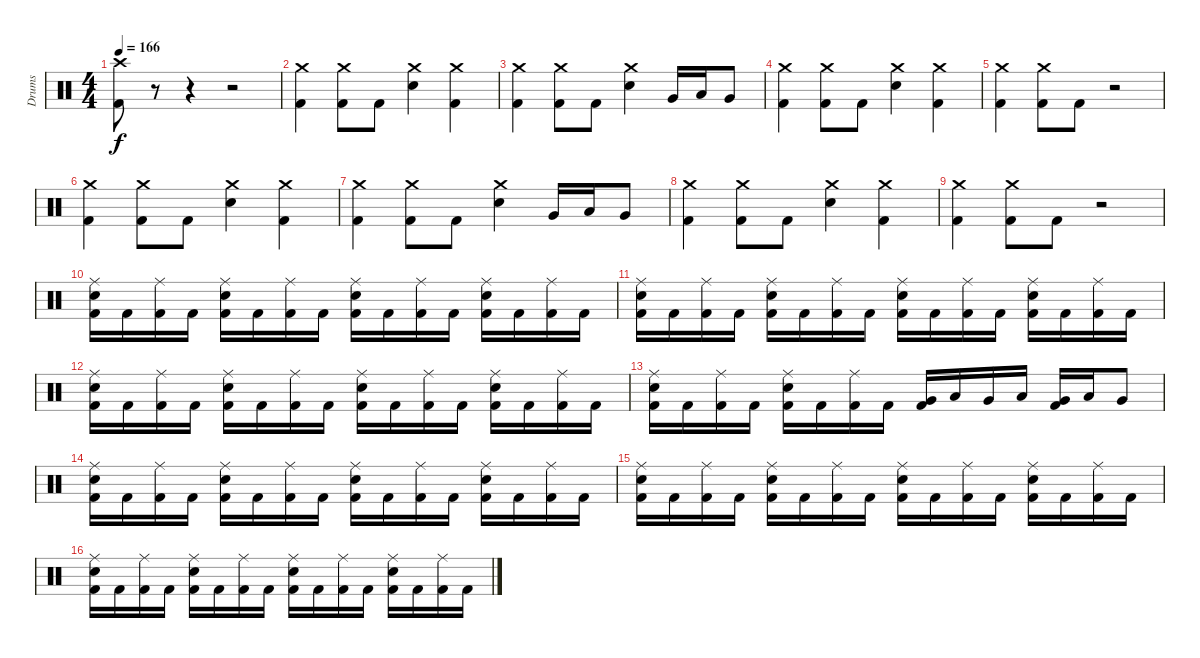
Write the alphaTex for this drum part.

\track ("Drums" "Drums") {instrument percussion}
\staff {score}
\articulation defaults
\ts (4 4)
\tempo 166
\clef neutral
\ks c
("Crash high (hit)" "Kick (hit) 2").8{dy f} r.8 r.4 r.2 |
("Crash medium (hit)" "Kick (hit) 2").4 ("Crash medium (hit)" "Kick (hit) 2").8 "Kick (hit) 2".8 ("Crash medium (hit)" "Snare (hit) 2").4 ("Crash medium (hit)" "Kick (hit) 2").4 |
("Crash medium (hit)" "Kick (hit) 2").4 ("Crash medium (hit)" "Kick (hit) 2").8 "Kick (hit) 2".8 ("Crash medium (hit)" "Snare (hit) 2").4 "Very Low Tom (hit)".16 "Low Tom (hit)".16 "Very Low Tom (hit)".8 |
("Crash medium (hit)" "Kick (hit) 2").4 ("Crash medium (hit)" "Kick (hit) 2").8 "Kick (hit) 2".8 ("Crash medium (hit)" "Snare (hit) 2").4 ("Crash medium (hit)" "Kick (hit) 2").4 |
("Crash medium (hit)" "Kick (hit) 2").4 ("Crash medium (hit)" "Kick (hit) 2").8 "Kick (hit) 2".8 r.2 |
("Crash medium (hit)" "Kick (hit) 2").4 ("Crash medium (hit)" "Kick (hit) 2").8 "Kick (hit) 2".8 ("Crash medium (hit)" "Snare (hit) 2").4 ("Crash medium (hit)" "Kick (hit) 2").4 |
("Crash medium (hit)" "Kick (hit) 2").4 ("Crash medium (hit)" "Kick (hit) 2").8 "Kick (hit) 2".8 ("Crash medium (hit)" "Snare (hit) 2").4 "Very Low Tom (hit)".16 "Low Tom (hit)".16 "Very Low Tom (hit)".8 |
("Crash medium (hit)" "Kick (hit) 2").4 ("Crash medium (hit)" "Kick (hit) 2").8 "Kick (hit) 2".8 ("Crash medium (hit)" "Snare (hit) 2").4 ("Crash medium (hit)" "Kick (hit) 2").4 |
("Crash medium (hit)" "Kick (hit) 2").4 ("Crash medium (hit)" "Kick (hit) 2").8 "Kick (hit) 2".8 r.2 |
("Ride (middle)" "Snare (hit) 2" "Kick (hit) 2").16 "Kick (hit) 2".16 ("Ride (middle)" "Kick (hit) 2").16 "Kick (hit) 2".16 ("Ride (middle)" "Snare (hit) 2" "Kick (hit) 2").16 "Kick (hit) 2".16 ("Ride (middle)" "Kick (hit) 2").16 "Kick (hit) 2".16 ("Ride (middle)" "Snare (hit) 2" "Kick (hit) 2").16 "Kick (hit) 2".16 ("Ride (middle)" "Kick (hit) 2").16 "Kick (hit) 2".16 ("Ride (middle)" "Snare (hit) 2" "Kick (hit) 2").16 "Kick (hit) 2".16 ("Ride (middle)" "Kick (hit) 2").16 "Kick (hit) 2".16 |
("Ride (middle)" "Snare (hit) 2" "Kick (hit) 2").16 "Kick (hit) 2".16 ("Ride (middle)" "Kick (hit) 2").16 "Kick (hit) 2".16 ("Ride (middle)" "Snare (hit) 2" "Kick (hit) 2").16 "Kick (hit) 2".16 ("Ride (middle)" "Kick (hit) 2").16 "Kick (hit) 2".16 ("Ride (middle)" "Snare (hit) 2" "Kick (hit) 2").16 "Kick (hit) 2".16 ("Ride (middle)" "Kick (hit) 2").16 "Kick (hit) 2".16 ("Ride (middle)" "Snare (hit) 2" "Kick (hit) 2").16 "Kick (hit) 2".16 ("Ride (middle)" "Kick (hit) 2").16 "Kick (hit) 2".16 |
("Ride (middle)" "Snare (hit) 2" "Kick (hit) 2").16 "Kick (hit) 2".16 ("Ride (middle)" "Kick (hit) 2").16 "Kick (hit) 2".16 ("Ride (middle)" "Snare (hit) 2" "Kick (hit) 2").16 "Kick (hit) 2".16 ("Ride (middle)" "Kick (hit) 2").16 "Kick (hit) 2".16 ("Ride (middle)" "Snare (hit) 2" "Kick (hit) 2").16 "Kick (hit) 2".16 ("Ride (middle)" "Kick (hit) 2").16 "Kick (hit) 2".16 ("Ride (middle)" "Snare (hit) 2" "Kick (hit) 2").16 "Kick (hit) 2".16 ("Ride (middle)" "Kick (hit) 2").16 "Kick (hit) 2".16 |
("Ride (middle)" "Snare (hit) 2" "Kick (hit) 2").16 "Kick (hit) 2".16 ("Ride (middle)" "Kick (hit) 2").16 "Kick (hit) 2".16 ("Ride (middle)" "Snare (hit) 2" "Kick (hit) 2").16 "Kick (hit) 2".16 ("Ride (middle)" "Kick (hit) 2").16 "Kick (hit) 2".16 ("Very Low Tom (hit)" "Kick (hit) 2").16 "Low Tom (hit)".16 "Very Low Tom (hit)".16 "Low Tom (hit)".16 ("Very Low Tom (hit)" "Kick (hit) 2").16 "Low Tom (hit)".16 "Very Low Tom (hit)".8 |
("Ride (middle)" "Snare (hit) 2" "Kick (hit) 2").16 "Kick (hit) 2".16 ("Ride (middle)" "Kick (hit) 2").16 "Kick (hit) 2".16 ("Ride (middle)" "Snare (hit) 2" "Kick (hit) 2").16 "Kick (hit) 2".16 ("Ride (middle)" "Kick (hit) 2").16 "Kick (hit) 2".16 ("Ride (middle)" "Snare (hit) 2" "Kick (hit) 2").16 "Kick (hit) 2".16 ("Ride (middle)" "Kick (hit) 2").16 "Kick (hit) 2".16 ("Ride (middle)" "Snare (hit) 2" "Kick (hit) 2").16 "Kick (hit) 2".16 ("Ride (middle)" "Kick (hit) 2").16 "Kick (hit) 2".16 |
("Ride (middle)" "Snare (hit) 2" "Kick (hit) 2").16 "Kick (hit) 2".16 ("Ride (middle)" "Kick (hit) 2").16 "Kick (hit) 2".16 ("Ride (middle)" "Snare (hit) 2" "Kick (hit) 2").16 "Kick (hit) 2".16 ("Ride (middle)" "Kick (hit) 2").16 "Kick (hit) 2".16 ("Ride (middle)" "Snare (hit) 2" "Kick (hit) 2").16 "Kick (hit) 2".16 ("Ride (middle)" "Kick (hit) 2").16 "Kick (hit) 2".16 ("Ride (middle)" "Snare (hit) 2" "Kick (hit) 2").16 "Kick (hit) 2".16 ("Ride (middle)" "Kick (hit) 2").16 "Kick (hit) 2".16 |
("Ride (middle)" "Snare (hit) 2" "Kick (hit) 2").16 "Kick (hit) 2".16 ("Ride (middle)" "Kick (hit) 2").16 "Kick (hit) 2".16 ("Ride (middle)" "Snare (hit) 2" "Kick (hit) 2").16 "Kick (hit) 2".16 ("Ride (middle)" "Kick (hit) 2").16 "Kick (hit) 2".16 ("Ride (middle)" "Snare (hit) 2" "Kick (hit) 2").16 "Kick (hit) 2".16 ("Ride (middle)" "Kick (hit) 2").16 "Kick (hit) 2".16 ("Ride (middle)" "Snare (hit) 2" "Kick (hit) 2").16 "Kick (hit) 2".16 ("Ride (middle)" "Kick (hit) 2").16 "Kick (hit) 2".16
